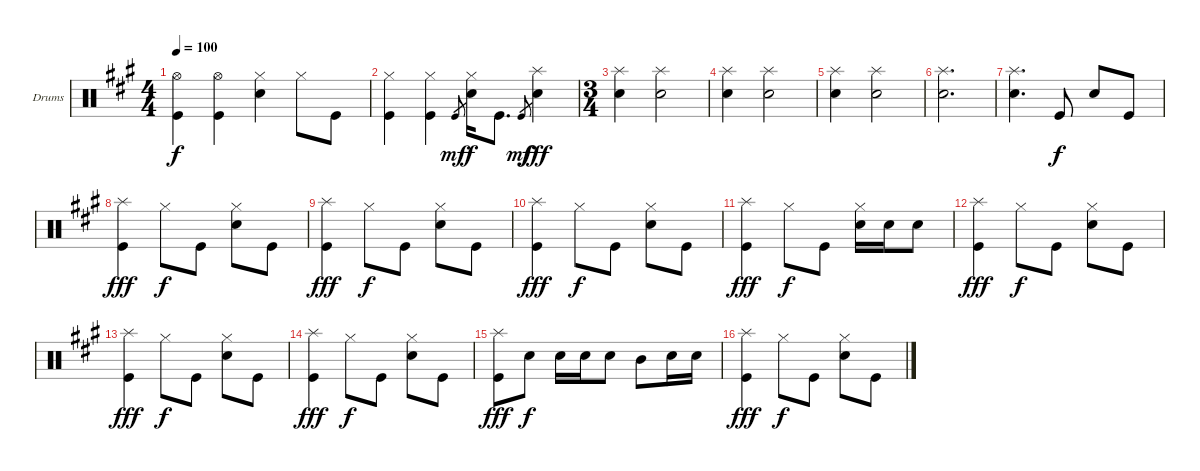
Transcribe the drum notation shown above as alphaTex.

\bracketExtendMode groupsimilarinstruments
\firstSystemTrackNameOrientation horizontal
\otherSystemsTrackNameOrientation horizontal
\track ("Drumkit" "Drums") {instrument percussion}
\staff {score}
\articulation defaults
\ts (4 4)
\tempo 100
\clef neutral
\scale
1.05801
\ks a
("Hi-Hat (open)" "Kick (hit)").4{dy f} ("Hi-Hat (open)" "Kick (hit)").4 ("Hi-Hat (closed)" "Snare (hit) 2").4 "Hi-Hat (closed)".8 "Kick (hit)".8 |
\scale
0.941992 ("Hi-Hat (closed)" "Kick (hit)").4 ("Hi-Hat (closed)" "Kick (hit)").4 "Kick (hit)".8{gr dy mf} ("Hi-Hat (closed)" "Snare (hit) 2").16{dy f} "Kick (hit)".8{d} "Kick (hit)".8{gr dy mf} ("Splash (hit)" "Snare (hit) 2").4{dy fff} |
\ts (3 4)
\scale
1.08827 ("Splash (hit)" "Snare (hit) 2").4 ("Splash (hit)" "Snare (hit) 2").2 |
\scale
0.911728 ("Splash (hit)" "Snare (hit) 2").4 ("Splash (hit)" "Snare (hit) 2").2 |
\scale
1.05801 ("Splash (hit)" "Snare (hit) 2").4 ("Splash (hit)" "Snare (hit) 2").2 |
\scale
0.941992 ("Splash (hit)" "Snare (hit) 2").2{d} |
\scale
1.05801 ("Splash (hit)" "Snare (hit) 2").4{d} "Kick (hit)".8{dy f} "Snare (hit) 2".8 "Kick (hit)".8 |
\scale
0.941992 ("Splash (hit)" "Kick (hit)").4{dy fff} "Hi-Hat (closed)".8{dy f} "Kick (hit)".8 ("Hi-Hat (closed)" "Snare (hit) 2").8 "Kick (hit)".8 |
\scale
1.05801 ("Splash (hit)" "Kick (hit)").4{dy fff} "Hi-Hat (closed)".8{dy f} "Kick (hit)".8 ("Hi-Hat (closed)" "Snare (hit) 2").8 "Kick (hit)".8 |
\scale
0.941992 ("Splash (hit)" "Kick (hit)").4{dy fff} "Hi-Hat (closed)".8{dy f} "Kick (hit)".8 ("Hi-Hat (closed)" "Snare (hit) 2").8 "Kick (hit)".8 |
\scale
1.05801 ("Splash (hit)" "Kick (hit)").4{dy fff} "Hi-Hat (closed)".8{dy f} "Kick (hit)".8 ("Hi-Hat (closed)" "Snare (hit) 2").16 "Snare (hit) 2".16 "Snare (hit) 2".8 |
\scale
0.941992 ("Splash (hit)" "Kick (hit)").4{dy fff} "Hi-Hat (closed)".8{dy f} "Kick (hit)".8 ("Hi-Hat (closed)" "Snare (hit) 2").8 "Kick (hit)".8 |
\scale
1.05801 ("Splash (hit)" "Kick (hit)").4{dy fff} "Hi-Hat (closed)".8{dy f} "Kick (hit)".8 ("Hi-Hat (closed)" "Snare (hit) 2").8 "Kick (hit)".8 |
\scale
0.941992 ("Splash (hit)" "Kick (hit)").4{dy fff} "Hi-Hat (closed)".8{dy f} "Kick (hit)".8 ("Hi-Hat (closed)" "Snare (hit) 2").8 "Kick (hit)".8 |
\scale
1.05801 ("Splash (hit)" "Kick (hit)").8{dy fff} "Snare (hit) 2".8{dy f} "Snare (hit) 2".16 "Snare (hit) 2".16 "Snare (hit) 2".8 "Mid Tom (hit)".8 "Snare (hit) 2".16 "Snare (hit) 2".16 |
\scale
0.941992 ("Splash (hit)" "Kick (hit)").4{dy fff} "Hi-Hat (closed)".8{dy f} "Kick (hit)".8 ("Hi-Hat (closed)" "Snare (hit) 2").8 "Kick (hit)".8
